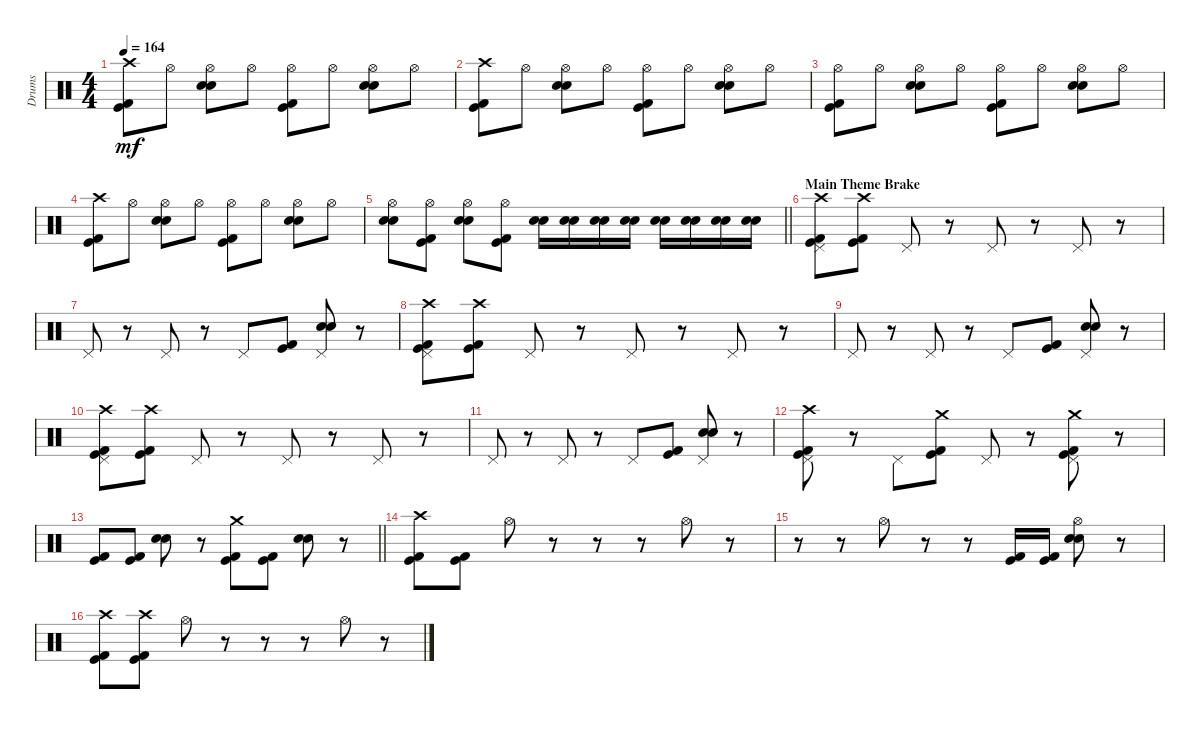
\track ("Drums" "Drums") {instrument percussion}
\staff {score}
\articulation defaults
\ts (4 4)
\tempo 164
\clef neutral
\ks c
("Crash high (hit)" "Kick (hit) 2" "Kick (hit)").8{dy mf} "Hi-Hat (open)".8 ("Hi-Hat (open)" "Snare (hit) 2" "Electric Snare (hit)").8 "Hi-Hat (open)".8 ("Hi-Hat (open)" "Kick (hit) 2" "Kick (hit)").8 "Hi-Hat (open)".8 ("Hi-Hat (open)" "Snare (hit) 2" "Electric Snare (hit)").8 "Hi-Hat (open)".8 |
("Crash high (hit)" "Kick (hit) 2" "Kick (hit)").8 "Hi-Hat (open)".8 ("Hi-Hat (open)" "Snare (hit) 2" "Electric Snare (hit)").8 "Hi-Hat (open)".8 ("Hi-Hat (open)" "Kick (hit) 2" "Kick (hit)").8 "Hi-Hat (open)".8 ("Hi-Hat (open)" "Snare (hit) 2" "Electric Snare (hit)").8 "Hi-Hat (open)".8 |
("Hi-Hat (open)" "Kick (hit) 2" "Kick (hit)").8 "Hi-Hat (open)".8 ("Hi-Hat (open)" "Snare (hit) 2" "Electric Snare (hit)").8 "Hi-Hat (open)".8 ("Hi-Hat (open)" "Kick (hit) 2" "Kick (hit)").8 "Hi-Hat (open)".8 ("Hi-Hat (open)" "Snare (hit) 2" "Electric Snare (hit)").8 "Hi-Hat (open)".8 |
("Crash high (hit)" "Kick (hit) 2" "Kick (hit)").8 "Hi-Hat (open)".8 ("Hi-Hat (open)" "Snare (hit) 2" "Electric Snare (hit)").8 "Hi-Hat (open)".8 ("Hi-Hat (open)" "Kick (hit) 2" "Kick (hit)").8 "Hi-Hat (open)".8 ("Hi-Hat (open)" "Snare (hit) 2" "Electric Snare (hit)").8 "Hi-Hat (open)".8 |
\barLineRight lightlight
("Hi-Hat (open)" "Snare (hit) 2" "Electric Snare (hit)").8 ("Hi-Hat (open)" "Kick (hit) 2" "Kick (hit)").8 ("Hi-Hat (open)" "Snare (hit) 2" "Electric Snare (hit)").8 ("Hi-Hat (open)" "Kick (hit) 2" "Kick (hit)").8 ("Snare (hit) 2" "Electric Snare (hit)").16 ("Snare (hit) 2" "Electric Snare (hit)").16 ("Snare (hit) 2" "Electric Snare (hit)").16 ("Snare (hit) 2" "Electric Snare (hit)").16 ("Snare (hit) 2" "Electric Snare (hit)").16 ("Snare (hit) 2" "Electric Snare (hit)").16 ("Snare (hit) 2" "Electric Snare (hit)").16 ("Snare (hit) 2" "Electric Snare (hit)").16 |
\section ("" "Main Theme Brake")
("Crash high (hit)" "Pedal Hi-Hat (hit)" "Kick (hit) 2" "Kick (hit)").8 ("Crash high (hit)" "Kick (hit) 2" "Kick (hit)").8 "Pedal Hi-Hat (hit)".8 r.8 "Pedal Hi-Hat (hit)".8 r.8 "Pedal Hi-Hat (hit)".8 r.8 |
"Pedal Hi-Hat (hit)".8 r.8 "Pedal Hi-Hat (hit)".8 r.8 "Pedal Hi-Hat (hit)".8 ("Kick (hit) 2" "Kick (hit)").8 ("Pedal Hi-Hat (hit)" "Snare (hit) 2" "Electric Snare (hit)").8 r.8 |
("Crash high (hit)" "Pedal Hi-Hat (hit)" "Kick (hit) 2" "Kick (hit)").8 ("Crash high (hit)" "Kick (hit) 2" "Kick (hit)").8 "Pedal Hi-Hat (hit)".8 r.8 "Pedal Hi-Hat (hit)".8 r.8 "Pedal Hi-Hat (hit)".8 r.8 |
"Pedal Hi-Hat (hit)".8 r.8 "Pedal Hi-Hat (hit)".8 r.8 "Pedal Hi-Hat (hit)".8 ("Kick (hit) 2" "Kick (hit)").8 ("Pedal Hi-Hat (hit)" "Snare (hit) 2" "Electric Snare (hit)").8 r.8 |
("Crash high (hit)" "Pedal Hi-Hat (hit)" "Kick (hit) 2" "Kick (hit)").8 ("Crash high (hit)" "Kick (hit) 2" "Kick (hit)").8 "Pedal Hi-Hat (hit)".8 r.8 "Pedal Hi-Hat (hit)".8 r.8 "Pedal Hi-Hat (hit)".8 r.8 |
"Pedal Hi-Hat (hit)".8 r.8 "Pedal Hi-Hat (hit)".8 r.8 "Pedal Hi-Hat (hit)".8 ("Kick (hit) 2" "Kick (hit)").8 ("Pedal Hi-Hat (hit)" "Snare (hit) 2" "Electric Snare (hit)").8 r.8 |
("Crash high (hit)" "Pedal Hi-Hat (hit)" "Kick (hit) 2" "Kick (hit)").8 r.8 "Pedal Hi-Hat (hit)".8 ("Crash medium (hit)" "Kick (hit) 2" "Kick (hit)").8 "Pedal Hi-Hat (hit)".8 r.8 ("Crash medium (hit)" "Pedal Hi-Hat (hit)" "Kick (hit) 2" "Kick (hit)").8 r.8 |
\barLineRight lightlight
("Kick (hit) 2" "Kick (hit)").8 ("Kick (hit) 2" "Kick (hit)").8 ("Snare (hit) 2" "Electric Snare (hit)").8 r.8 ("Crash medium (hit)" "Kick (hit) 2" "Kick (hit)").8 ("Kick (hit) 2" "Kick (hit)").8 ("Snare (hit) 2" "Electric Snare (hit)").8 r.8 |
("Crash high (hit)" "Kick (hit) 2" "Kick (hit)").8 ("Kick (hit) 2" "Kick (hit)").8 "Hi-Hat (open)".8 r.8 r.8 r.8 "Hi-Hat (open)".8 r.8 |
r.8 r.8 "Hi-Hat (open)".8 r.8 r.8 ("Kick (hit) 2" "Kick (hit)").16 ("Kick (hit) 2" "Kick (hit)").16 ("Hi-Hat (open)" "Snare (hit) 2" "Electric Snare (hit)").8 r.8 |
("Crash high (hit)" "Kick (hit) 2" "Kick (hit)").8 ("Crash high (hit)" "Kick (hit) 2" "Kick (hit)").8 "Hi-Hat (open)".8 r.8 r.8 r.8 "Hi-Hat (open)".8 r.8
